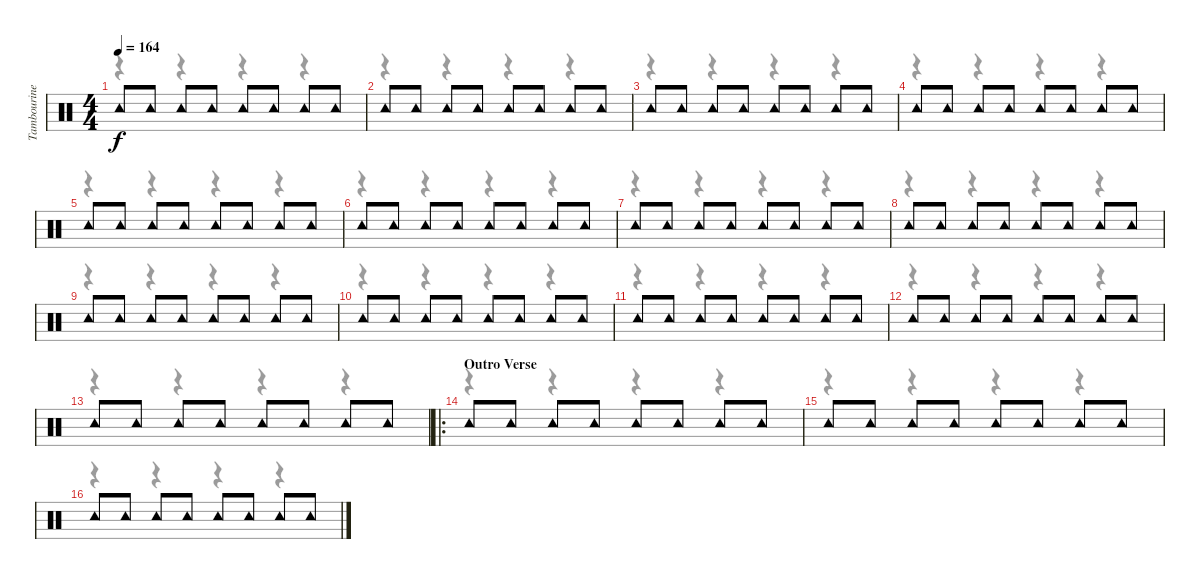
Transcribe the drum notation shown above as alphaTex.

\track ("Tambourine" "Tambourine") {instrument percussion}
\staff {score}
\articulation defaults
\voice
\ts (4 4)
\tempo 164
\clef neutral
\ks c "Tambourine (hit)".8{dy f} "Tambourine (hit)".8 "Tambourine (hit)".8 "Tambourine (hit)".8 "Tambourine (hit)".8 "Tambourine (hit)".8 "Tambourine (hit)".8 "Tambourine (hit)".8
|
"Tambourine (hit)".8 "Tambourine (hit)".8 "Tambourine (hit)".8 "Tambourine (hit)".8 "Tambourine (hit)".8 "Tambourine (hit)".8 "Tambourine (hit)".8 "Tambourine (hit)".8 |
"Tambourine (hit)".8 "Tambourine (hit)".8 "Tambourine (hit)".8 "Tambourine (hit)".8 "Tambourine (hit)".8 "Tambourine (hit)".8 "Tambourine (hit)".8 "Tambourine (hit)".8 |
"Tambourine (hit)".8 "Tambourine (hit)".8 "Tambourine (hit)".8 "Tambourine (hit)".8 "Tambourine (hit)".8 "Tambourine (hit)".8 "Tambourine (hit)".8 "Tambourine (hit)".8 |
"Tambourine (hit)".8 "Tambourine (hit)".8 "Tambourine (hit)".8 "Tambourine (hit)".8 "Tambourine (hit)".8 "Tambourine (hit)".8 "Tambourine (hit)".8 "Tambourine (hit)".8 |
"Tambourine (hit)".8 "Tambourine (hit)".8 "Tambourine (hit)".8 "Tambourine (hit)".8 "Tambourine (hit)".8 "Tambourine (hit)".8 "Tambourine (hit)".8 "Tambourine (hit)".8 |
"Tambourine (hit)".8 "Tambourine (hit)".8 "Tambourine (hit)".8 "Tambourine (hit)".8 "Tambourine (hit)".8 "Tambourine (hit)".8 "Tambourine (hit)".8 "Tambourine (hit)".8 |
"Tambourine (hit)".8 "Tambourine (hit)".8 "Tambourine (hit)".8 "Tambourine (hit)".8 "Tambourine (hit)".8 "Tambourine (hit)".8 "Tambourine (hit)".8 "Tambourine (hit)".8 |
"Tambourine (hit)".8 "Tambourine (hit)".8 "Tambourine (hit)".8 "Tambourine (hit)".8 "Tambourine (hit)".8 "Tambourine (hit)".8 "Tambourine (hit)".8 "Tambourine (hit)".8 |
"Tambourine (hit)".8 "Tambourine (hit)".8 "Tambourine (hit)".8 "Tambourine (hit)".8 "Tambourine (hit)".8 "Tambourine (hit)".8 "Tambourine (hit)".8 "Tambourine (hit)".8 |
"Tambourine (hit)".8 "Tambourine (hit)".8 "Tambourine (hit)".8 "Tambourine (hit)".8 "Tambourine (hit)".8 "Tambourine (hit)".8 "Tambourine (hit)".8 "Tambourine (hit)".8 |
"Tambourine (hit)".8 "Tambourine (hit)".8 "Tambourine (hit)".8 "Tambourine (hit)".8 "Tambourine (hit)".8 "Tambourine (hit)".8 "Tambourine (hit)".8 "Tambourine (hit)".8 |
"Tambourine (hit)".8 "Tambourine (hit)".8 "Tambourine (hit)".8 "Tambourine (hit)".8 "Tambourine (hit)".8 "Tambourine (hit)".8 "Tambourine (hit)".8 "Tambourine (hit)".8 |
\ro
\section ("" "Outro Verse")
"Tambourine (hit)".8 "Tambourine (hit)".8 "Tambourine (hit)".8 "Tambourine (hit)".8 "Tambourine (hit)".8 "Tambourine (hit)".8 "Tambourine (hit)".8 "Tambourine (hit)".8 |
"Tambourine (hit)".8 "Tambourine (hit)".8 "Tambourine (hit)".8 "Tambourine (hit)".8 "Tambourine (hit)".8 "Tambourine (hit)".8 "Tambourine (hit)".8 "Tambourine (hit)".8 |
"Tambourine (hit)".8 "Tambourine (hit)".8 "Tambourine (hit)".8 "Tambourine (hit)".8 "Tambourine (hit)".8 "Tambourine (hit)".8 "Tambourine (hit)".8 "Tambourine (hit)".8
\voice
\clef neutral
\ottava regular
\simile none
\ks c
r.4{dy f} r.4 r.4 r.4 |
r.4 r.4 r.4 r.4 |
r.4 r.4 r.4 r.4 |
r.4 r.4 r.4 r.4 |
r.4 r.4 r.4 r.4 |
r.4 r.4 r.4 r.4 |
r.4 r.4 r.4 r.4 |
r.4 r.4 r.4 r.4 |
r.4 r.4 r.4 r.4 |
r.4 r.4 r.4 r.4 |
r.4 r.4 r.4 r.4 |
r.4 r.4 r.4 r.4 |
r.4 r.4 r.4 r.4 |
r.4 r.4 r.4 r.4 |
r.4 r.4 r.4 r.4 |
r.4 r.4 r.4 r.4
